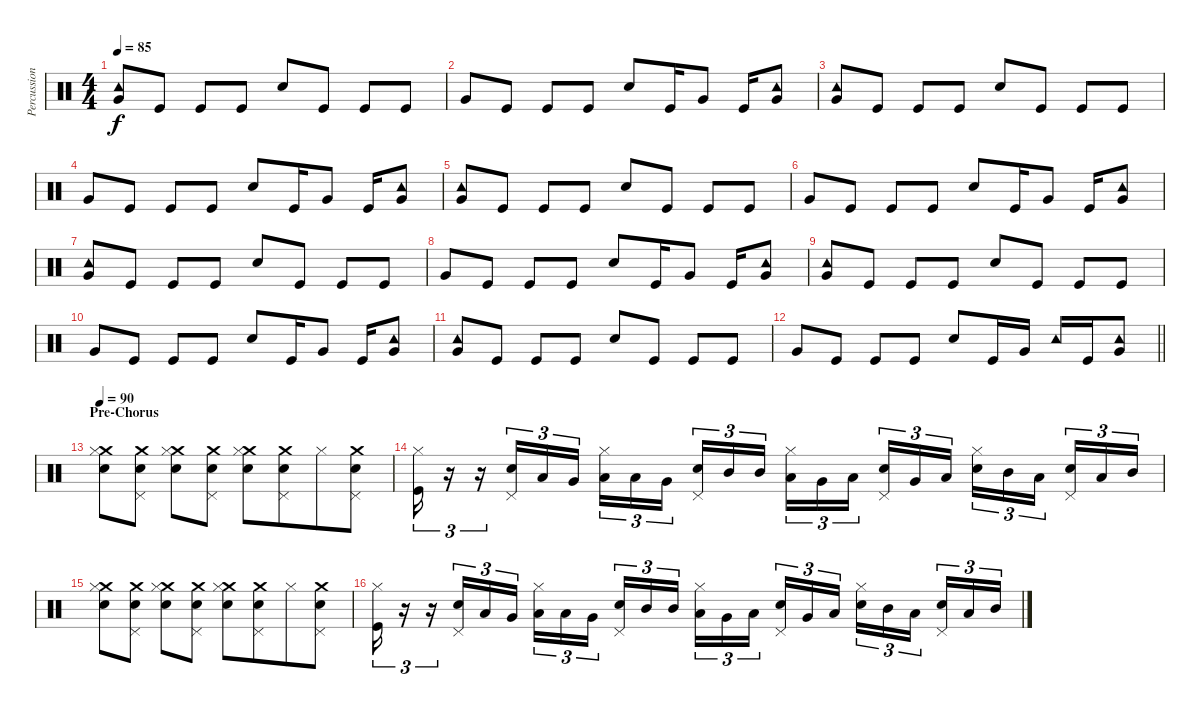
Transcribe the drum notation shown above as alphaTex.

\track ("Percussion" "Percussion") {instrument percussion}
\staff {score}
\articulation defaults
\ts (4 4)
\tempo 85
\clef neutral
\ks c
("Tambourine (hit)" "Very Low Tom (hit)").8{dy f} "Kick (hit)".8 "Kick (hit)".8 "Kick (hit)".8 "Electric Snare (hit)".8 "Kick (hit)".8 "Kick (hit)".8 "Kick (hit)".8 |
"Very Low Tom (hit)".8 "Kick (hit)".8 "Kick (hit)".8 "Kick (hit)".8 "Electric Snare (hit)".8 "Kick (hit)".16 "Very Low Tom (hit)".8 "Kick (hit)".16 ("Tambourine (hit)" "Very Low Tom (hit)").8 |
("Tambourine (hit)" "Very Low Tom (hit)").8 "Kick (hit)".8 "Kick (hit)".8 "Kick (hit)".8 "Electric Snare (hit)".8 "Kick (hit)".8 "Kick (hit)".8 "Kick (hit)".8 |
"Very Low Tom (hit)".8 "Kick (hit)".8 "Kick (hit)".8 "Kick (hit)".8 "Electric Snare (hit)".8 "Kick (hit)".16 "Very Low Tom (hit)".8 "Kick (hit)".16 ("Tambourine (hit)" "Very Low Tom (hit)").8 |
("Tambourine (hit)" "Very Low Tom (hit)").8 "Kick (hit)".8 "Kick (hit)".8 "Kick (hit)".8 "Electric Snare (hit)".8 "Kick (hit)".8 "Kick (hit)".8 "Kick (hit)".8 |
"Very Low Tom (hit)".8 "Kick (hit)".8 "Kick (hit)".8 "Kick (hit)".8 "Electric Snare (hit)".8 "Kick (hit)".16 "Very Low Tom (hit)".8 "Kick (hit)".16 ("Tambourine (hit)" "Very Low Tom (hit)").8 |
("Tambourine (hit)" "Very Low Tom (hit)").8 "Kick (hit)".8 "Kick (hit)".8 "Kick (hit)".8 "Electric Snare (hit)".8 "Kick (hit)".8 "Kick (hit)".8 "Kick (hit)".8 |
"Very Low Tom (hit)".8 "Kick (hit)".8 "Kick (hit)".8 "Kick (hit)".8 "Electric Snare (hit)".8 "Kick (hit)".16 "Very Low Tom (hit)".8 "Kick (hit)".16 ("Tambourine (hit)" "Very Low Tom (hit)").8 |
("Tambourine (hit)" "Very Low Tom (hit)").8 "Kick (hit)".8 "Kick (hit)".8 "Kick (hit)".8 "Electric Snare (hit)".8 "Kick (hit)".8 "Kick (hit)".8 "Kick (hit)".8 |
"Very Low Tom (hit)".8 "Kick (hit)".8 "Kick (hit)".8 "Kick (hit)".8 "Electric Snare (hit)".8 "Kick (hit)".16 "Very Low Tom (hit)".8 "Kick (hit)".16 ("Tambourine (hit)" "Very Low Tom (hit)").8 |
("Tambourine (hit)" "Very Low Tom (hit)").8 "Kick (hit)".8 "Kick (hit)".8 "Kick (hit)".8 "Electric Snare (hit)".8 "Kick (hit)".8 "Kick (hit)".8 "Kick (hit)".8 |
\barLineRight lightlight "Very Low Tom (hit)".8 "Kick (hit)".8 "Kick (hit)".8 "Kick (hit)".8 "Electric Snare (hit)".8 "Kick (hit)".16 "Very Low Tom (hit)".16 "Tambourine (hit)".16 "Kick (hit)".16
("Tambourine (hit)" "Very Low Tom (hit)").8 |
\section ("" "Pre-Chorus")
\tempo 90
("Crash medium (hit)" "Hi-Hat (closed)" "Snare (hit) 2").8 ("Crash medium (hit)" "Pedal Hi-Hat (hit)" "Snare (hit) 2").8 ("Crash medium (hit)" "Hi-Hat (closed)" "Snare (hit) 2").8{beam merge} ("Crash medium (hit)" "Pedal Hi-Hat (hit)" "Snare (hit) 2").8 ("Crash medium (hit)" "Hi-Hat (closed)" "Snare (hit) 2").8 ("Crash medium (hit)" "Pedal Hi-Hat (hit)" "Snare (hit) 2").8{beam merge} "Hi-Hat (closed)".8 ("Crash medium (hit)" "Pedal Hi-Hat (hit)" "Snare (hit) 2").8 |
("Hi-Hat (closed)" "Kick (hit)").16{tu (3 2)} r.16{tu (3 2)} r.16{tu (3 2)} ("Pedal Hi-Hat (hit)" "Snare (hit) 2").16{tu (3 2) beam merge} "Low Tom (hit)".16{tu (3 2)} "Very Low Tom (hit)".16{tu (3 2)} ("Hi-Hat (closed)" "Low Floor Tom (hit)").16{tu (3 2) beam merge} "Low Floor Tom (hit)".16{tu (3 2)} "Very Low Tom (hit)".16{tu (3 2) beam splitsecondary} ("Pedal Hi-Hat (hit)" "Snare (hit) 2").16{tu (3 2)} "Mid Tom (hit)".16{tu (3 2)} "Mid Tom (hit)".16{tu (3 2)} ("Hi-Hat (closed)" "Low Tom (hit)").16{tu (3 2)} "Very Low Tom (hit)".16{tu (3 2)} "Low Floor Tom (hit)".16{tu (3 2) beam splitsecondary} ("Pedal Hi-Hat (hit)" "Snare (hit) 2").16{tu (3 2)} "Very Low Tom (hit)".16{tu (3 2) beam merge} "Low Tom (hit)".16{tu (3 2)} ("Hi-Hat (closed)" "Snare (hit) 2").16{tu (3 2)} "Mid Tom (hit)".16{tu (3 2)} "Low Tom (hit)".16{tu (3 2) beam splitsecondary} ("Pedal Hi-Hat (hit)" "Snare (hit) 2").16{tu (3 2)} "Low Tom (hit)".16{tu (3 2)} "Mid Tom (hit)".16{tu (3 2)} |
("Crash medium (hit)" "Hi-Hat (closed)" "Snare (hit) 2").8 ("Crash medium (hit)" "Pedal Hi-Hat (hit)" "Snare (hit) 2").8 ("Crash medium (hit)" "Hi-Hat (closed)" "Snare (hit) 2").8{beam merge} ("Crash medium (hit)" "Pedal Hi-Hat (hit)" "Snare (hit) 2").8 ("Crash medium (hit)" "Hi-Hat (closed)" "Snare (hit) 2").8 ("Crash medium (hit)" "Pedal Hi-Hat (hit)" "Snare (hit) 2").8{beam merge} "Hi-Hat (closed)".8 ("Crash medium (hit)" "Pedal Hi-Hat (hit)" "Snare (hit) 2").8 |
("Hi-Hat (closed)" "Kick (hit)").16{tu (3 2)} r.16{tu (3 2)} r.16{tu (3 2)} ("Pedal Hi-Hat (hit)" "Snare (hit) 2").16{tu (3 2) beam merge} "Low Tom (hit)".16{tu (3 2)} "Very Low Tom (hit)".16{tu (3 2)} ("Hi-Hat (closed)" "Low Floor Tom (hit)").16{tu (3 2) beam merge} "Low Floor Tom (hit)".16{tu (3 2)} "Very Low Tom (hit)".16{tu (3 2) beam splitsecondary} ("Pedal Hi-Hat (hit)" "Snare (hit) 2").16{tu (3 2)} "Mid Tom (hit)".16{tu (3 2)} "Mid Tom (hit)".16{tu (3 2)} ("Hi-Hat (closed)" "Low Tom (hit)").16{tu (3 2)} "Very Low Tom (hit)".16{tu (3 2)} "Low Floor Tom (hit)".16{tu (3 2) beam splitsecondary} ("Pedal Hi-Hat (hit)" "Snare (hit) 2").16{tu (3 2)} "Very Low Tom (hit)".16{tu (3 2) beam merge} "Low Tom (hit)".16{tu (3 2)} ("Hi-Hat (closed)" "Snare (hit) 2").16{tu (3 2)} "Mid Tom (hit)".16{tu (3 2)} "Low Tom (hit)".16{tu (3 2) beam splitsecondary} ("Pedal Hi-Hat (hit)" "Snare (hit) 2").16{tu (3 2)} "Low Tom (hit)".16{tu (3 2)} "Mid Tom (hit)".16{tu (3 2)}
